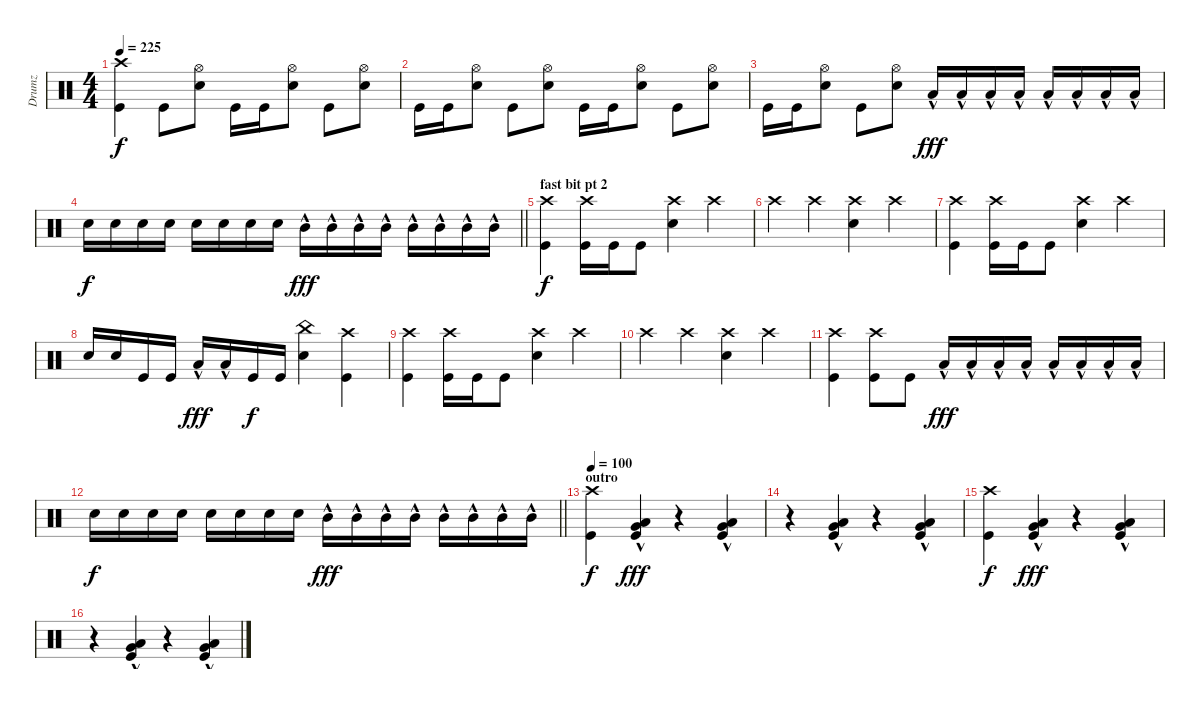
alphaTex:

\track ("Drumz" "Drumz") {instrument percussion}
\staff {score}
\articulation defaults
\ts (4 4)
\tempo 225
\clef neutral
\ks c
("Crash high (hit)" "Kick (hit)").4{dy f} "Kick (hit)".8 ("Hi-Hat (open)" "Electric Snare (hit)").8 "Kick (hit)".16 "Kick (hit)".16 ("Hi-Hat (open)" "Electric Snare (hit)").8 "Kick (hit)".8 ("Hi-Hat (open)" "Electric Snare (hit)").8 |
"Kick (hit)".16 "Kick (hit)".16 ("Hi-Hat (open)" "Electric Snare (hit)").8 "Kick (hit)".8 ("Hi-Hat (open)" "Electric Snare (hit)").8 "Kick (hit)".16 "Kick (hit)".16 ("Hi-Hat (open)" "Electric Snare (hit)").8 "Kick (hit)".8 ("Hi-Hat (open)" "Electric Snare (hit)").8 |
"Kick (hit)".16 "Kick (hit)".16 ("Hi-Hat (open)" "Electric Snare (hit)").8 "Kick (hit)".8 ("Hi-Hat (open)" "Electric Snare (hit)").8 "Low Tom (hit)"{hac}.16{dy fff} "Low Tom (hit)"{hac}.16 "Low Tom (hit)"{hac}.16 "Low Tom (hit)"{hac}.16 "Low Tom (hit)"{hac}.16 "Low Tom (hit)"{hac}.16 "Low Tom (hit)"{hac}.16 "Low Tom (hit)"{hac}.16 |
\barLineRight lightlight "Electric Snare (hit)".16{dy f} "Electric Snare (hit)".16 "Electric Snare (hit)".16 "Electric Snare (hit)".16 "Electric Snare (hit)".16 "Electric Snare (hit)".16 "Electric Snare (hit)".16 "Electric Snare (hit)".16 "Mid Tom (hit)"{hac}.16{dy fff} "Mid Tom (hit)"{hac}.16 "Mid Tom (hit)"{hac}.16 "Mid Tom (hit)"{hac}.16 "Mid Tom (hit)"{hac}.16 "Mid Tom (hit)"{hac}.16 "Mid Tom (hit)"{hac}.16 "Mid Tom (hit)"{hac}.16
|
\section ("" "fast bit pt 2")
("Crash high (hit)" "Kick (hit)").4{dy f} ("Crash high (hit)" "Kick (hit)").16 "Kick (hit)".16 "Kick (hit)".8 ("Crash high (hit)" "Electric Snare (hit)").4 "Crash high (hit)".4 |
"Crash high (hit)".4 "Crash high (hit)".4 ("Crash high (hit)" "Electric Snare (hit)").4 "Crash high (hit)".4 |
("Crash high (hit)" "Kick (hit)").4 ("Crash high (hit)" "Kick (hit)").16 "Kick (hit)".16 "Kick (hit)".8 ("Crash high (hit)" "Electric Snare (hit)").4 "Crash high (hit)".4 |
"Electric Snare (hit)".16 "Electric Snare (hit)".16 "Kick (hit)".16 "Kick (hit)".16 "Low Tom (hit)"{hac}.16{dy fff} "Low Tom (hit)"{hac}.16 "Kick (hit)".16{dy f} "Kick (hit)".16 ("China (hit)" "Electric Snare (hit)").4 ("Crash high (hit)" "Kick (hit)").4 |
("Crash high (hit)" "Kick (hit)").4 ("Crash high (hit)" "Kick (hit)").16 "Kick (hit)".16 "Kick (hit)".8 ("Crash high (hit)" "Electric Snare (hit)").4 "Crash high (hit)".4 |
"Crash high (hit)".4 "Crash high (hit)".4 ("Crash high (hit)" "Electric Snare (hit)").4 "Crash high (hit)".4 |
("Crash high (hit)" "Kick (hit)").4 ("Crash high (hit)" "Kick (hit)").8 "Kick (hit)".8 "Low Tom (hit)"{hac}.16{dy fff} "Low Tom (hit)"{hac}.16 "Low Tom (hit)"{hac}.16 "Low Tom (hit)"{hac}.16 "Low Tom (hit)"{hac}.16 "Low Tom (hit)"{hac}.16 "Low Tom (hit)"{hac}.16 "Low Tom (hit)"{hac}.16 |
\barLineRight lightlight "Electric Snare (hit)".16{dy f} "Electric Snare (hit)".16 "Electric Snare (hit)".16 "Electric Snare (hit)".16 "Electric Snare (hit)".16 "Electric Snare (hit)".16 "Electric Snare (hit)".16 "Electric Snare (hit)".16 "Mid Tom (hit)"{hac}.16{dy fff} "Mid Tom (hit)"{hac}.16 "Mid Tom (hit)"{hac}.16 "Mid Tom (hit)"{hac}.16 "Mid Tom (hit)"{hac}.16 "Mid Tom (hit)"{hac}.16 "Mid Tom (hit)"{hac}.16 "Mid Tom (hit)"{hac}.16
|
\section ("" "outro")
\tempo 100
("Crash high (hit)" "Kick (hit)").4{dy f} ("Low Tom (hit)"{hac} "Very Low Tom (hit)"{hac} "Kick (hit)").4{dy fff} r.4 ("Low Tom (hit)"{hac} "Very Low Tom (hit)"{hac} "Kick (hit)").4 |
r.4 ("Low Tom (hit)"{hac} "Very Low Tom (hit)"{hac} "Kick (hit)").4 r.4 ("Low Tom (hit)"{hac} "Very Low Tom (hit)"{hac} "Kick (hit)").4 |
("Crash high (hit)" "Kick (hit)").4{dy f} ("Low Tom (hit)"{hac} "Very Low Tom (hit)"{hac} "Kick (hit)").4{dy fff} r.4 ("Low Tom (hit)"{hac} "Very Low Tom (hit)"{hac} "Kick (hit)").4 |
r.4 ("Low Tom (hit)"{hac} "Very Low Tom (hit)"{hac} "Kick (hit)").4 r.4 ("Low Tom (hit)"{hac} "Very Low Tom (hit)"{hac} "Kick (hit)").4
